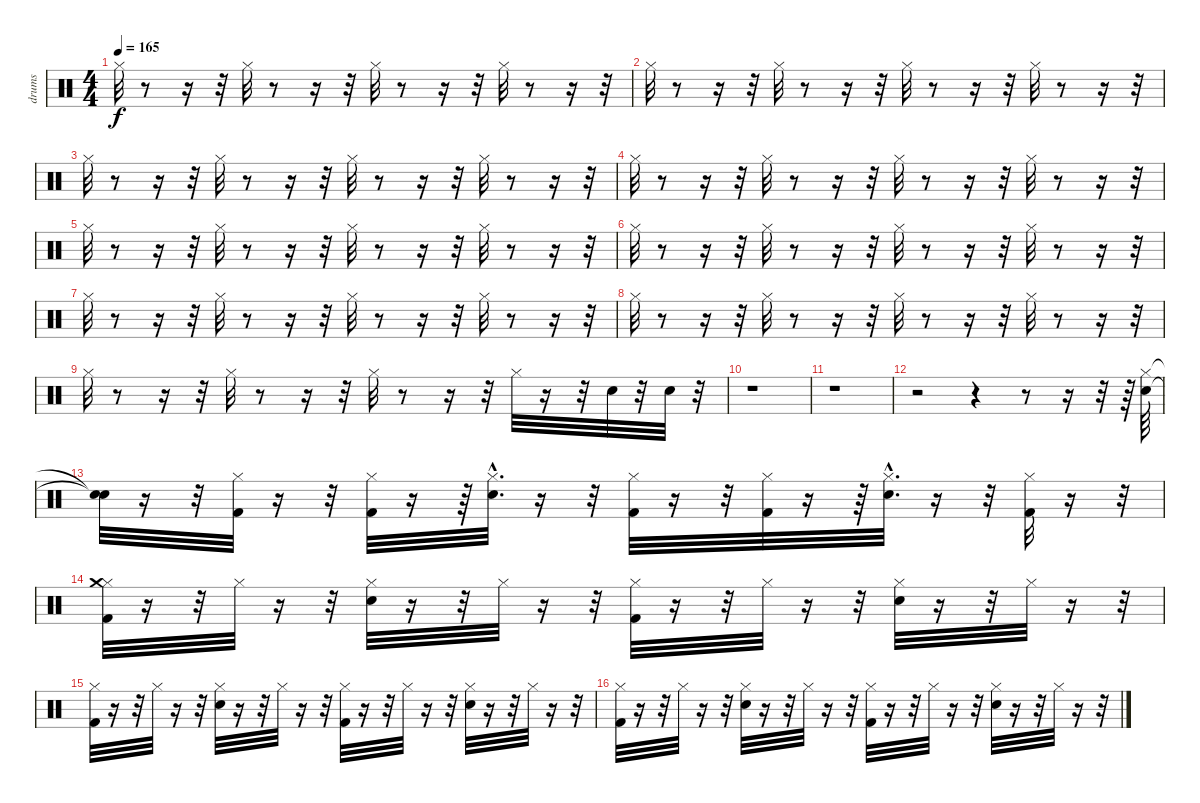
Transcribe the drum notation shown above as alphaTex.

\track ("drums" "drums") {instrument percussion}
\staff {score}
\articulation defaults
\ts (4 4)
\tempo 165
\clef neutral
\ks c "Hi-Hat (closed)".32{dy f}
r.8 r.16 r.32 "Hi-Hat (closed)".32 r.8 r.16 r.32 "Hi-Hat (closed)".32 r.8 r.16 r.32 "Hi-Hat (closed)".32 r.8 r.16 r.32 |
"Hi-Hat (closed)".32 r.8 r.16 r.32 "Hi-Hat (closed)".32 r.8 r.16 r.32 "Hi-Hat (closed)".32 r.8 r.16 r.32 "Hi-Hat (closed)".32 r.8 r.16 r.32 |
"Hi-Hat (closed)".32 r.8 r.16 r.32 "Hi-Hat (closed)".32 r.8 r.16 r.32 "Hi-Hat (closed)".32 r.8 r.16 r.32 "Hi-Hat (closed)".32 r.8 r.16 r.32 |
"Hi-Hat (closed)".32 r.8 r.16 r.32 "Hi-Hat (closed)".32 r.8 r.16 r.32 "Hi-Hat (closed)".32 r.8 r.16 r.32 "Hi-Hat (closed)".32 r.8 r.16 r.32 |
"Hi-Hat (closed)".32 r.8 r.16 r.32 "Hi-Hat (closed)".32 r.8 r.16 r.32 "Hi-Hat (closed)".32 r.8 r.16 r.32 "Hi-Hat (closed)".32 r.8 r.16 r.32 |
"Hi-Hat (closed)".32 r.8 r.16 r.32 "Hi-Hat (closed)".32 r.8 r.16 r.32 "Hi-Hat (closed)".32 r.8 r.16 r.32 "Hi-Hat (closed)".32 r.8 r.16 r.32 |
"Hi-Hat (closed)".32 r.8 r.16 r.32 "Hi-Hat (closed)".32 r.8 r.16 r.32 "Hi-Hat (closed)".32 r.8 r.16 r.32 "Hi-Hat (closed)".32 r.8 r.16 r.32 |
"Hi-Hat (closed)".32 r.8 r.16 r.32 "Hi-Hat (closed)".32 r.8 r.16 r.32 "Hi-Hat (closed)".32 r.8 r.16 r.32 "Hi-Hat (closed)".32 r.8 r.16 r.32 |
"Hi-Hat (closed)".32 r.8 r.16 r.32 "Hi-Hat (closed)".32 r.8 r.16 r.32 "Hi-Hat (closed)".32 r.8 r.16 r.32 "Hi-Hat (closed)".32 r.16 r.32 "Snare (hit) 2".32 r.32 "Electric Snare (hit)".32 r.32 |
r.1 |
r.1 |
r.2 r.4 r.8 r.16 r.32 r.64 ("Hi-Hat (closed)" "Electric Snare (hit)").64 |
("Snare (hit)"{t} "Snare (hit)"{t}).32 r.16 r.32 ("Kick (hit) 2" "Hi-Hat (closed)").32 r.16 r.32 ("Hi-Hat (closed)" "Kick (hit) 2").32 r.16 r.64 ("Electric Snare (hit)"{hac} "Hi-Hat (closed)"{hac}).32{d} r.16 r.32 ("Hi-Hat (closed)" "Kick (hit) 2").32 r.16 r.32 ("Hi-Hat (closed)" "Kick (hit) 2").32 r.16 r.64 ("Hi-Hat (closed)"{hac} "Electric Snare (hit)"{hac}).32{d} r.16 r.32 ("Kick (hit) 2" "Hi-Hat (closed)").32 r.16 r.32 |
("Kick (hit) 2" "Hi-Hat (closed)" "Crash medium (hit)").32 r.16 r.32 "Hi-Hat (closed)".32 r.16 r.32 ("Hi-Hat (closed)" "Electric Snare (hit)").32 r.16 r.32 "Hi-Hat (closed)".32 r.16 r.32 ("Hi-Hat (closed)" "Kick (hit) 2").32 r.16 r.32 "Hi-Hat (closed)".32 r.16 r.32 ("Hi-Hat (closed)" "Electric Snare (hit)").32 r.16 r.32 "Hi-Hat (closed)".32 r.16 r.32 |
("Hi-Hat (closed)" "Kick (hit) 2").32 r.16 r.32 "Hi-Hat (closed)".32 r.16 r.32 ("Hi-Hat (closed)" "Electric Snare (hit)").32 r.16 r.32 "Hi-Hat (closed)".32 r.16 r.32 ("Hi-Hat (closed)" "Kick (hit) 2").32 r.16 r.32 "Hi-Hat (closed)".32 r.16 r.32 ("Hi-Hat (closed)" "Electric Snare (hit)").32 r.16 r.32 "Hi-Hat (closed)".32 r.16 r.32 |
("Hi-Hat (closed)" "Kick (hit) 2").32 r.16 r.32 "Hi-Hat (closed)".32 r.16 r.32 ("Hi-Hat (closed)" "Electric Snare (hit)").32 r.16 r.32 "Hi-Hat (closed)".32 r.16 r.32 ("Hi-Hat (closed)" "Kick (hit) 2").32 r.16 r.32 "Hi-Hat (closed)".32 r.16 r.32 ("Hi-Hat (closed)" "Electric Snare (hit)").32 r.16 r.32 "Hi-Hat (closed)".32 r.16 r.32
